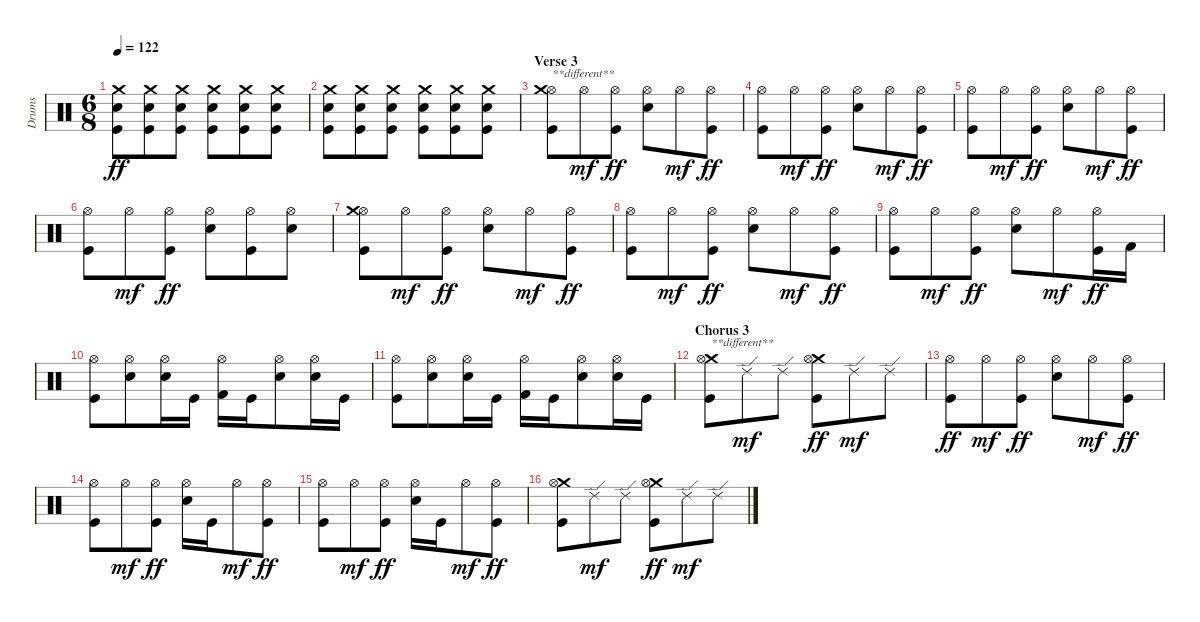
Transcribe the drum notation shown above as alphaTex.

\track ("Drums" "Drums") {instrument percussion}
\staff {score}
\articulation defaults
\ts (6 8)
\tempo 122
\clef neutral
\ks c
("Crash medium (hit)" "Electric Snare (hit)" "Kick (hit)").8{dy ff} ("Crash medium (hit)" "Electric Snare (hit)" "Kick (hit)").8 ("Crash medium (hit)" "Electric Snare (hit)" "Kick (hit)").8 ("Crash medium (hit)" "Electric Snare (hit)" "Kick (hit)").8 ("Crash medium (hit)" "Electric Snare (hit)" "Kick (hit)").8 ("Crash medium (hit)" "Electric Snare (hit)" "Kick (hit)").8 |
("Crash medium (hit)" "Electric Snare (hit)" "Kick (hit)").8 ("Crash medium (hit)" "Electric Snare (hit)" "Kick (hit)").8 ("Crash medium (hit)" "Electric Snare (hit)" "Kick (hit)").8 ("Crash medium (hit)" "Electric Snare (hit)" "Kick (hit)").8 ("Crash medium (hit)" "Electric Snare (hit)" "Kick (hit)").8 ("Crash medium (hit)" "Electric Snare (hit)" "Kick (hit)").8 |
\section ("" "Verse 3")
("Hi-Hat (open)" "Crash medium (hit)" "Kick (hit)").8{txt "**different**"} "Hi-Hat (open)".8{dy mf} ("Hi-Hat (open)" "Kick (hit)").8{dy ff} ("Hi-Hat (open)" "Electric Snare (hit)").8 "Hi-Hat (open)".8{dy mf} ("Hi-Hat (open)" "Kick (hit)").8{dy ff} |
("Hi-Hat (open)" "Kick (hit)").8 "Hi-Hat (open)".8{dy mf} ("Hi-Hat (open)" "Kick (hit)").8{dy ff} ("Hi-Hat (open)" "Electric Snare (hit)").8 "Hi-Hat (open)".8{dy mf} ("Hi-Hat (open)" "Kick (hit)").8{dy ff} |
("Hi-Hat (open)" "Kick (hit)").8 "Hi-Hat (open)".8{dy mf} ("Hi-Hat (open)" "Kick (hit)").8{dy ff} ("Hi-Hat (open)" "Electric Snare (hit)").8 "Hi-Hat (open)".8{dy mf} ("Hi-Hat (open)" "Kick (hit)").8{dy ff} |
("Hi-Hat (open)" "Kick (hit)").8 "Hi-Hat (open)".8{dy mf} ("Hi-Hat (open)" "Kick (hit)").8{dy ff} ("Hi-Hat (open)" "Electric Snare (hit)").8 ("Hi-Hat (open)" "Kick (hit)").8 ("Hi-Hat (open)" "Electric Snare (hit)").8 |
("Hi-Hat (open)" "Crash medium (hit)" "Kick (hit)").8 "Hi-Hat (open)".8{dy mf} ("Hi-Hat (open)" "Kick (hit)").8{dy ff} ("Hi-Hat (open)" "Electric Snare (hit)").8 "Hi-Hat (open)".8{dy mf} ("Hi-Hat (open)" "Kick (hit)").8{dy ff} |
("Hi-Hat (open)" "Kick (hit)").8 "Hi-Hat (open)".8{dy mf} ("Hi-Hat (open)" "Kick (hit)").8{dy ff} ("Hi-Hat (open)" "Electric Snare (hit)").8 "Hi-Hat (open)".8{dy mf} ("Hi-Hat (open)" "Kick (hit)").8{dy ff} |
("Hi-Hat (open)" "Kick (hit)").8 "Hi-Hat (open)".8{dy mf} ("Hi-Hat (open)" "Kick (hit)").8{dy ff} ("Hi-Hat (open)" "Electric Snare (hit)").8 "Hi-Hat (open)".8{dy mf} ("Hi-Hat (open)" "Kick (hit)").16{dy ff} "Kick (hit) 2".16 |
("Hi-Hat (open)" "Kick (hit)").8 ("Hi-Hat (open)" "Electric Snare (hit)").8 ("Hi-Hat (open)" "Electric Snare (hit)").16 "Kick (hit)".16 ("Hi-Hat (open)" "Kick (hit) 2").16 "Kick (hit)".16 ("Hi-Hat (open)" "Electric Snare (hit)").8 ("Hi-Hat (open)" "Electric Snare (hit)").16 "Kick (hit)".16 |
("Hi-Hat (open)" "Kick (hit)").8 ("Hi-Hat (open)" "Electric Snare (hit)").8 ("Hi-Hat (open)" "Electric Snare (hit)").16 "Kick (hit)".16 ("Hi-Hat (open)" "Kick (hit) 2").16 "Kick (hit)".16 ("Hi-Hat (open)" "Electric Snare (hit)").8 ("Hi-Hat (open)" "Electric Snare (hit)").16 "Kick (hit)".16 |
\section ("" "Chorus 3")
("Crash medium (hit)" "Hi-Hat (open)" "Kick (hit)").8{txt "**different**"} "Ride (edge) 2".8{dy mf} "Ride (edge) 2".8 ("Crash medium (hit)" "Hi-Hat (open)" "Kick (hit)").8{dy ff} "Ride (edge) 2".8{dy mf} "Ride (edge) 2".8 |
("Hi-Hat (open)" "Kick (hit)").8{dy ff} "Hi-Hat (open)".8{dy mf} ("Hi-Hat (open)" "Kick (hit)").8{dy ff} ("Hi-Hat (open)" "Electric Snare (hit)").8 "Hi-Hat (open)".8{dy mf} ("Hi-Hat (open)" "Kick (hit)").8{dy ff} |
("Hi-Hat (open)" "Kick (hit)").8 "Hi-Hat (open)".8{dy mf} ("Hi-Hat (open)" "Kick (hit)").8{dy ff} ("Hi-Hat (open)" "Electric Snare (hit)").16 "Kick (hit)".16 "Hi-Hat (open)".8{dy mf} ("Hi-Hat (open)" "Kick (hit)").8{dy ff} |
("Hi-Hat (open)" "Kick (hit)").8 "Hi-Hat (open)".8{dy mf} ("Hi-Hat (open)" "Kick (hit)").8{dy ff} ("Hi-Hat (open)" "Electric Snare (hit)").16 "Kick (hit)".16 "Hi-Hat (open)".8{dy mf} ("Hi-Hat (open)" "Kick (hit)").8{dy ff} |
("Crash medium (hit)" "Hi-Hat (open)" "Kick (hit)").8 "Ride (edge) 2".8{dy mf} "Ride (edge) 2".8 ("Crash medium (hit)" "Hi-Hat (open)" "Kick (hit)").8{dy ff} "Ride (edge) 2".8{dy mf} "Ride (edge) 2".8
